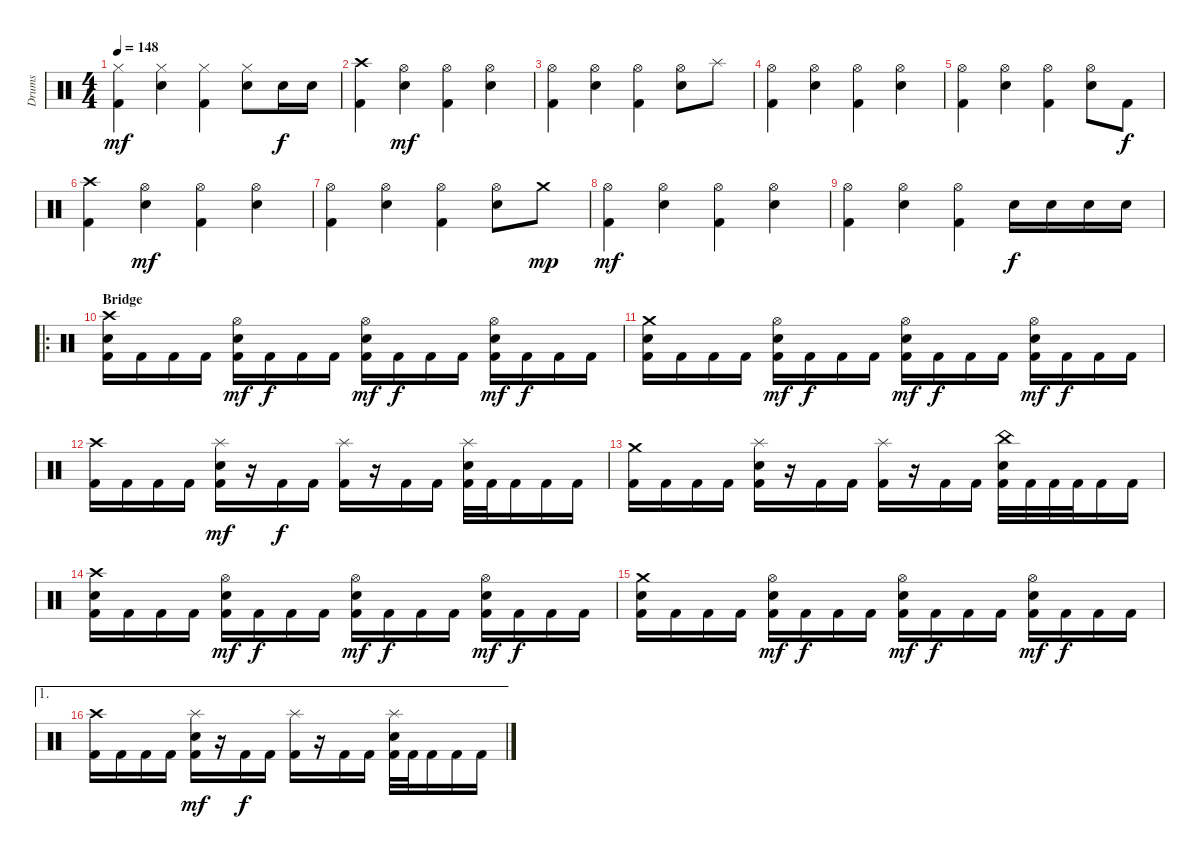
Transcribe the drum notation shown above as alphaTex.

\track ("Drums" "Drums") {instrument percussion}
\staff {score}
\articulation defaults
\ts (4 4)
\tempo 148
\clef neutral
\ks c
("Hi-Hat (closed)" "Kick (hit) 2").4{dy mf} ("Hi-Hat (closed)" "Snare (hit) 2").4 ("Hi-Hat (closed)" "Kick (hit) 2").4 ("Hi-Hat (closed)" "Snare (hit) 2").8 "Snare (hit) 2".16{dy f} "Snare (hit) 2".16 |
("Crash high (hit)" "Kick (hit) 2").4 ("Hi-Hat (open)" "Snare (hit) 2").4{dy mf} ("Hi-Hat (open)" "Kick (hit) 2").4 ("Hi-Hat (open)" "Snare (hit) 2").4 |
("Hi-Hat (open)" "Kick (hit) 2").4 ("Hi-Hat (open)" "Snare (hit) 2").4 ("Hi-Hat (open)" "Kick (hit) 2").4 ("Hi-Hat (open)" "Snare (hit) 2").8 "Splash (hit)".8 |
("Hi-Hat (open)" "Kick (hit) 2").4 ("Hi-Hat (open)" "Snare (hit) 2").4 ("Hi-Hat (open)" "Kick (hit) 2").4 ("Hi-Hat (open)" "Snare (hit) 2").4 |
("Hi-Hat (open)" "Kick (hit) 2").4 ("Hi-Hat (open)" "Snare (hit) 2").4 ("Hi-Hat (open)" "Kick (hit) 2").4 ("Hi-Hat (open)" "Snare (hit) 2").8 "Kick (hit) 2".8{dy f} |
("Crash high (hit)" "Kick (hit) 2").4 ("Hi-Hat (open)" "Snare (hit) 2").4{dy mf} ("Hi-Hat (open)" "Kick (hit) 2").4 ("Hi-Hat (open)" "Snare (hit) 2").4 |
("Hi-Hat (open)" "Kick (hit) 2").4 ("Hi-Hat (open)" "Snare (hit) 2").4 ("Hi-Hat (open)" "Kick (hit) 2").4 ("Hi-Hat (open)" "Snare (hit) 2").8 "Crash medium (hit)".8{dy mp} |
("Hi-Hat (open)" "Kick (hit) 2").4{dy mf} ("Hi-Hat (open)" "Snare (hit) 2").4 ("Hi-Hat (open)" "Kick (hit) 2").4 ("Hi-Hat (open)" "Snare (hit) 2").4 |
("Hi-Hat (open)" "Kick (hit) 2").4 ("Hi-Hat (open)" "Snare (hit) 2").4 ("Hi-Hat (open)" "Kick (hit) 2").4 "Snare (hit) 2".16{dy f} "Snare (hit) 2".16 "Snare (hit) 2".16 "Snare (hit) 2".16 |
\ro
\section ("" "Bridge")
("Crash high (hit)" "Snare (hit) 2" "Kick (hit) 2").16 "Kick (hit) 2".16 "Kick (hit) 2".16 "Kick (hit) 2".16 ("Hi-Hat (open)" "Snare (hit) 2" "Kick (hit) 2").16{dy mf} "Kick (hit) 2".16{dy f} "Kick (hit) 2".16 "Kick (hit) 2".16 ("Hi-Hat (open)" "Snare (hit) 2" "Kick (hit) 2").16{dy mf} "Kick (hit) 2".16{dy f} "Kick (hit) 2".16 "Kick (hit) 2".16 ("Hi-Hat (open)" "Snare (hit) 2" "Kick (hit) 2").16{dy mf} "Kick (hit) 2".16{dy f} "Kick (hit) 2".16 "Kick (hit) 2".16 |
("Crash medium (hit)" "Snare (hit) 2" "Kick (hit) 2").16 "Kick (hit) 2".16 "Kick (hit) 2".16 "Kick (hit) 2".16 ("Hi-Hat (open)" "Snare (hit) 2" "Kick (hit) 2").16{dy mf} "Kick (hit) 2".16{dy f} "Kick (hit) 2".16 "Kick (hit) 2".16 ("Hi-Hat (open)" "Snare (hit) 2" "Kick (hit) 2").16{dy mf} "Kick (hit) 2".16{dy f} "Kick (hit) 2".16 "Kick (hit) 2".16 ("Hi-Hat (open)" "Snare (hit) 2" "Kick (hit) 2").16{dy mf} "Kick (hit) 2".16{dy f} "Kick (hit) 2".16 "Kick (hit) 2".16 |
("Crash high (hit)" "Kick (hit) 2").16 "Kick (hit) 2".16 "Kick (hit) 2".16 "Kick (hit) 2".16 ("Splash (hit)" "Snare (hit) 2" "Kick (hit) 2").16{dy mf} r.16 "Kick (hit) 2".16{dy f} "Kick (hit) 2".16 ("Splash (hit)" "Kick (hit) 2").16 r.16 "Kick (hit) 2".16 "Kick (hit) 2".16 ("Splash (hit)" "Snare (hit) 2" "Kick (hit) 2").32 "Kick (hit) 2".32 "Kick (hit) 2".16 "Kick (hit) 2".16 "Kick (hit) 2".16 |
("Crash medium (hit)" "Kick (hit) 2").16 "Kick (hit) 2".16 "Kick (hit) 2".16 "Kick (hit) 2".16 ("Splash (hit)" "Snare (hit) 2" "Kick (hit) 2").16 r.16 "Kick (hit) 2".16 "Kick (hit) 2".16 ("Splash (hit)" "Kick (hit) 2").16 r.16 "Kick (hit) 2".16 "Kick (hit) 2".16 ("China (hit)" "Snare (hit) 2" "Kick (hit) 2").32 "Kick (hit) 2".32 "Kick (hit) 2".32 "Kick (hit) 2".32 "Kick (hit) 2".16 "Kick (hit) 2".16 |
("Crash high (hit)" "Snare (hit) 2" "Kick (hit) 2").16 "Kick (hit) 2".16 "Kick (hit) 2".16 "Kick (hit) 2".16 ("Hi-Hat (open)" "Snare (hit) 2" "Kick (hit) 2").16{dy mf} "Kick (hit) 2".16{dy f} "Kick (hit) 2".16 "Kick (hit) 2".16 ("Hi-Hat (open)" "Snare (hit) 2" "Kick (hit) 2").16{dy mf} "Kick (hit) 2".16{dy f} "Kick (hit) 2".16 "Kick (hit) 2".16 ("Hi-Hat (open)" "Snare (hit) 2" "Kick (hit) 2").16{dy mf} "Kick (hit) 2".16{dy f} "Kick (hit) 2".16 "Kick (hit) 2".16 |
("Crash medium (hit)" "Snare (hit) 2" "Kick (hit) 2").16 "Kick (hit) 2".16 "Kick (hit) 2".16 "Kick (hit) 2".16 ("Hi-Hat (open)" "Snare (hit) 2" "Kick (hit) 2").16{dy mf} "Kick (hit) 2".16{dy f} "Kick (hit) 2".16 "Kick (hit) 2".16 ("Hi-Hat (open)" "Snare (hit) 2" "Kick (hit) 2").16{dy mf} "Kick (hit) 2".16{dy f} "Kick (hit) 2".16 "Kick (hit) 2".16 ("Hi-Hat (open)" "Snare (hit) 2" "Kick (hit) 2").16{dy mf} "Kick (hit) 2".16{dy f} "Kick (hit) 2".16 "Kick (hit) 2".16 |
\ae 1
("Crash high (hit)" "Kick (hit) 2").16 "Kick (hit) 2".16 "Kick (hit) 2".16 "Kick (hit) 2".16 ("Splash (hit)" "Snare (hit) 2" "Kick (hit) 2").16{dy mf} r.16 "Kick (hit) 2".16{dy f} "Kick (hit) 2".16 ("Splash (hit)" "Kick (hit) 2").16 r.16 "Kick (hit) 2".16 "Kick (hit) 2".16 ("Splash (hit)" "Snare (hit) 2" "Kick (hit) 2").32 "Kick (hit) 2".32 "Kick (hit) 2".16 "Kick (hit) 2".16 "Kick (hit) 2".16
